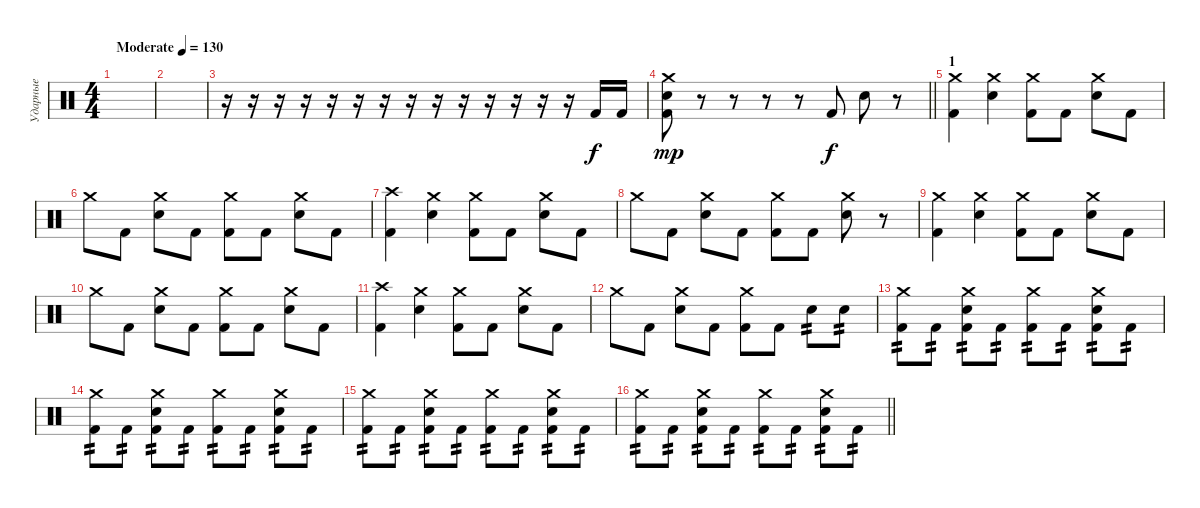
\track ("Ударные" "Ударные") {instrument percussion}
\staff {score}
\articulation defaults
\ts (4 4)
\tempo (130 "Moderate")
\clef neutral
\ks c
|
|
r.16 r.16 r.16 r.16 r.16 r.16 r.16 r.16 r.16 r.16 r.16 r.16 r.16 r.16 "Kick (hit) 2".16 "Kick (hit) 2".16 |
\barLineRight lightlight
("Snare (hit) 2" "Kick (hit) 2" "Crash medium (hit)").8{dy mp} r.8 r.8 r.8 r.8 "Kick (hit) 2".8{dy f} "Snare (hit) 2".8 r.8 |
\section ("" "1")
("Kick (hit) 2" "Crash medium (hit)").4 ("Snare (hit) 2" "Crash medium (hit)").4 ("Kick (hit) 2" "Crash medium (hit)").8 "Kick (hit) 2".8 ("Snare (hit) 2" "Crash medium (hit)").8 "Kick (hit) 2".8 |
"Crash medium (hit)".8 "Kick (hit) 2".8 ("Snare (hit) 2" "Crash medium (hit)").8 "Kick (hit) 2".8 ("Kick (hit) 2" "Crash medium (hit)").8 "Kick (hit) 2".8 ("Snare (hit) 2" "Crash medium (hit)").8 "Kick (hit) 2".8 |
("Kick (hit) 2" "Crash high (hit)").4 ("Snare (hit) 2" "Crash medium (hit)").4 ("Kick (hit) 2" "Crash medium (hit)").8 "Kick (hit) 2".8 ("Snare (hit) 2" "Crash medium (hit)").8 "Kick (hit) 2".8 |
"Crash medium (hit)".8 "Kick (hit) 2".8 ("Snare (hit) 2" "Crash medium (hit)").8 "Kick (hit) 2".8 ("Kick (hit) 2" "Crash medium (hit)").8 "Kick (hit) 2".8 ("Snare (hit) 2" "Crash medium (hit)").8 r.8 |
("Kick (hit) 2" "Crash medium (hit)").4 ("Snare (hit) 2" "Crash medium (hit)").4 ("Kick (hit) 2" "Crash medium (hit)").8 "Kick (hit) 2".8 ("Snare (hit) 2" "Crash medium (hit)").8 "Kick (hit) 2".8 |
"Crash medium (hit)".8 "Kick (hit) 2".8 ("Snare (hit) 2" "Crash medium (hit)").8 "Kick (hit) 2".8 ("Kick (hit) 2" "Crash medium (hit)").8 "Kick (hit) 2".8 ("Snare (hit) 2" "Crash medium (hit)").8 "Kick (hit) 2".8 |
("Kick (hit) 2" "Crash high (hit)").4 ("Snare (hit) 2" "Crash medium (hit)").4 ("Kick (hit) 2" "Crash medium (hit)").8 "Kick (hit) 2".8 ("Snare (hit) 2" "Crash medium (hit)").8 "Kick (hit) 2".8 |
"Crash medium (hit)".8 "Kick (hit) 2".8 ("Snare (hit) 2" "Crash medium (hit)").8 "Kick (hit) 2".8 ("Kick (hit) 2" "Crash medium (hit)").8 "Kick (hit) 2".8 "Snare (hit) 2".8{tp 2} "Snare (hit) 2".8{tp 2} |
("Crash medium (hit)" "Kick (hit) 2").8{tp 2} "Kick (hit) 2".8{tp 2} ("Crash medium (hit)" "Kick (hit) 2" "Snare (hit) 2").8{tp 2} "Kick (hit) 2".8{tp 2} ("Crash medium (hit)" "Kick (hit) 2").8{tp 2} "Kick (hit) 2".8{tp 2} ("Crash medium (hit)" "Kick (hit) 2" "Snare (hit) 2").8{tp 2} "Kick (hit) 2".8{tp 2} |
("Crash medium (hit)" "Kick (hit) 2").8{tp 2} "Kick (hit) 2".8{tp 2} ("Crash medium (hit)" "Kick (hit) 2" "Snare (hit) 2").8{tp 2} "Kick (hit) 2".8{tp 2} ("Crash medium (hit)" "Kick (hit) 2").8{tp 2} "Kick (hit) 2".8{tp 2} ("Crash medium (hit)" "Kick (hit) 2" "Snare (hit) 2").8{tp 2} "Kick (hit) 2".8{tp 2} |
("Crash medium (hit)" "Kick (hit) 2").8{tp 2} "Kick (hit) 2".8{tp 2} ("Crash medium (hit)" "Kick (hit) 2" "Snare (hit) 2").8{tp 2} "Kick (hit) 2".8{tp 2} ("Crash medium (hit)" "Kick (hit) 2").8{tp 2} "Kick (hit) 2".8{tp 2} ("Crash medium (hit)" "Kick (hit) 2" "Snare (hit) 2").8{tp 2} "Kick (hit) 2".8{tp 2} |
\barLineRight lightlight
("Crash medium (hit)" "Kick (hit) 2").8{tp 2} "Kick (hit) 2".8{tp 2} ("Crash medium (hit)" "Kick (hit) 2" "Snare (hit) 2").8{tp 2} "Kick (hit) 2".8{tp 2} ("Crash medium (hit)" "Kick (hit) 2").8{tp 2} "Kick (hit) 2".8{tp 2} ("Crash medium (hit)" "Kick (hit) 2" "Snare (hit) 2").8{tp 2} "Kick (hit) 2".8{tp 2}
